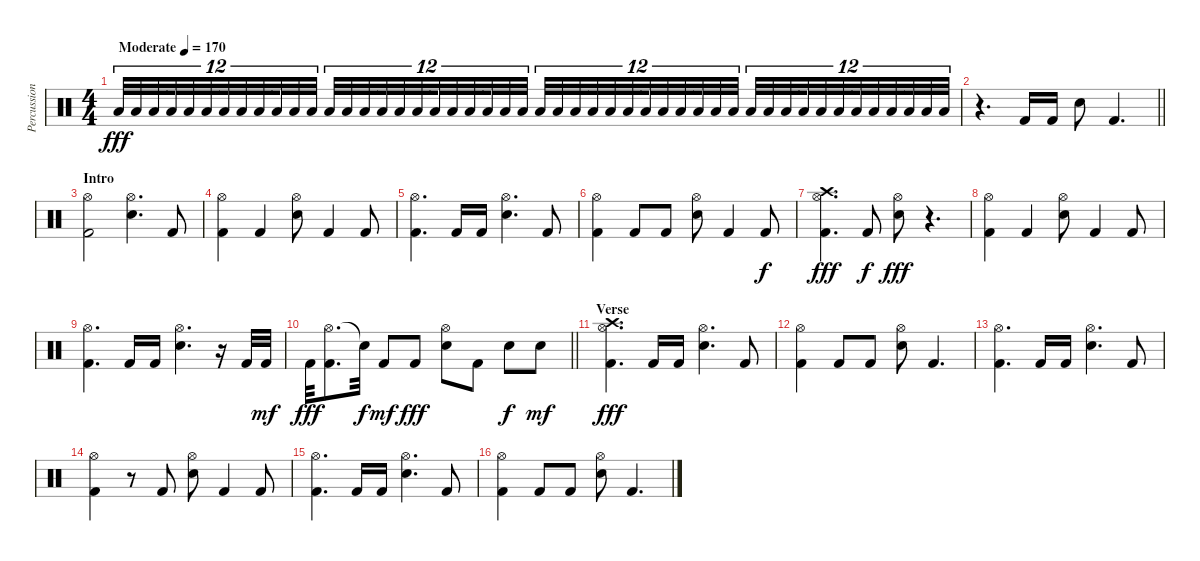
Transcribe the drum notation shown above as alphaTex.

\track ("Percussion" "Percussion") {instrument percussion}
\staff {score}
\articulation defaults
\ts (4 4)
\tempo (170 "Moderate")
\clef neutral
\ks c "Low Floor Tom (hit)".32{tu (12 8) dy fff volume 0} "Low Floor Tom (hit)".32{tu (12 8) volume 16} "Low Floor Tom (hit)".32{tu (12 8) beam splitsecondary} "Low Floor Tom (hit)".32{tu (12 8)} "Low Floor Tom (hit)".32{tu (12 8)} "Low Floor Tom (hit)".32{tu (12 8) beam splitsecondary} "Low Floor Tom (hit)".32{tu (12 8)} "Low Floor Tom (hit)".32{tu (12 8)} "Low Floor Tom (hit)".32{tu (12 8) beam splitsecondary} "Low Floor Tom (hit)".32{tu (12 8)} "Low Floor Tom (hit)".32{tu (12 8)} "Low Floor Tom (hit)".32{tu (12 8)} "Low Floor Tom (hit)".32{tu (12 8)} "Low Floor Tom (hit)".32{tu (12 8)} "Low Floor Tom (hit)".32{tu (12 8) beam splitsecondary} "Low Floor Tom (hit)".32{tu (12 8)} "Low Floor Tom (hit)".32{tu (12 8)} "Low Floor Tom (hit)".32{tu (12 8) beam splitsecondary} "Low Floor Tom (hit)".32{tu (12 8)} "Low Floor Tom (hit)".32{tu (12 8)} "Low Floor Tom (hit)".32{tu (12 8) beam splitsecondary} "Low Floor Tom (hit)".32{tu (12 8)} "Low Floor Tom (hit)".32{tu (12 8)} "Low Floor Tom (hit)".32{tu (12 8)} "Low Floor Tom (hit)".32{tu (12 8)} "Low Floor Tom (hit)".32{tu (12 8)} "Low Floor Tom (hit)".32{tu (12 8) beam splitsecondary} "Low Floor Tom (hit)".32{tu (12 8)} "Low Floor Tom (hit)".32{tu (12 8)} "Low Floor Tom (hit)".32{tu (12 8) beam splitsecondary} "Low Floor Tom (hit)".32{tu (12 8)} "Low Floor Tom (hit)".32{tu (12 8)} "Low Floor Tom (hit)".32{tu (12 8) beam splitsecondary} "Low Floor Tom (hit)".32{tu (12 8)} "Low Floor Tom (hit)".32{tu (12 8)} "Low Floor Tom (hit)".32{tu (12 8)} "Low Floor Tom (hit)".32{tu (12 8)} "Low Floor Tom (hit)".32{tu (12 8)} "Low Floor Tom (hit)".32{tu (12 8) beam splitsecondary} "Low Floor Tom (hit)".32{tu (12 8)} "Low Floor Tom (hit)".32{tu (12 8)} "Low Floor Tom (hit)".32{tu (12 8) beam splitsecondary} "Low Floor Tom (hit)".32{tu (12 8)} "Low Floor Tom (hit)".32{tu (12 8)} "Low Floor Tom (hit)".32{tu (12 8) beam splitsecondary} "Low Floor Tom (hit)".32{tu (12 8)} "Low Floor Tom (hit)".32{tu (12 8)} "Low Floor Tom (hit)".32{tu (12 8)}
|
\barLineRight lightlight
r.4{d} "Kick (hit) 2".16 "Kick (hit) 2".16 "Snare (hit) 2".8 "Kick (hit) 2".4{d} |
\section ("" "Intro")
("Hi-Hat (open)" "Kick (hit) 2").2 ("Hi-Hat (open)" "Snare (hit) 2").4{d} "Kick (hit) 2".8 |
("Hi-Hat (open)" "Kick (hit) 2").4 "Kick (hit) 2".4 ("Hi-Hat (open)" "Snare (hit) 2").8 "Kick (hit) 2".4 "Kick (hit) 2".8 |
("Hi-Hat (open)" "Kick (hit) 2").4{d} "Kick (hit) 2".16 "Kick (hit) 2".16 ("Hi-Hat (open)" "Snare (hit) 2").4{d} "Kick (hit) 2".8 |
("Hi-Hat (open)" "Kick (hit) 2").4 "Kick (hit) 2".8 "Kick (hit) 2".8 ("Hi-Hat (open)" "Snare (hit) 2").8 "Kick (hit) 2".4 "Kick (hit) 2".8{dy f} |
("Hi-Hat (open)" "Crash high (hit)" "Kick (hit) 2").4{d dy fff} "Kick (hit) 2".8{dy f} ("Hi-Hat (open)" "Snare (hit) 2").8{dy fff} r.4{d} |
("Hi-Hat (open)" "Kick (hit) 2").4 "Kick (hit) 2".4 ("Hi-Hat (open)" "Snare (hit) 2").8 "Kick (hit) 2".4 "Kick (hit) 2".8 |
("Hi-Hat (open)" "Kick (hit) 2").4{d} "Kick (hit) 2".16 "Kick (hit) 2".16 ("Hi-Hat (open)" "Snare (hit) 2").4{d} r.16 "Kick (hit) 2".32 "Kick (hit) 2".32{dy mf} |
\barLineRight lightlight "Kick (hit) 2".32{dy fff}
("Hi-Hat (open)" "Kick (hit) 2").8{d} "Snare (hit)"{t}.32{dy f} "Kick (hit) 2".8{dy mf} "Kick (hit) 2".8{dy fff} ("Hi-Hat (open)" "Snare (hit) 2").8 "Kick (hit) 2".8 "Snare (hit) 2".8{dy f} "Snare (hit) 2".8{dy mf} |
\section ("" "Verse")
("Hi-Hat (open)" "Crash high (hit)" "Kick (hit) 2").4{d dy fff} "Kick (hit) 2".16 "Kick (hit) 2".16 ("Hi-Hat (open)" "Snare (hit) 2").4{d} "Kick (hit) 2".8 |
("Hi-Hat (open)" "Kick (hit) 2").4 "Kick (hit) 2".8 "Kick (hit) 2".8 ("Hi-Hat (open)" "Snare (hit) 2").8 "Kick (hit) 2".4{d} |
("Hi-Hat (open)" "Kick (hit) 2").4{d} "Kick (hit) 2".16 "Kick (hit) 2".16 ("Hi-Hat (open)" "Snare (hit) 2").4{d} "Kick (hit) 2".8 |
("Hi-Hat (open)" "Kick (hit) 2").4 r.8 "Kick (hit) 2".8 ("Hi-Hat (open)" "Snare (hit) 2").8 "Kick (hit) 2".4 "Kick (hit) 2".8 |
("Hi-Hat (open)" "Kick (hit) 2").4{d} "Kick (hit) 2".16 "Kick (hit) 2".16 ("Hi-Hat (open)" "Snare (hit) 2").4{d} "Kick (hit) 2".8 |
("Hi-Hat (open)" "Kick (hit) 2").4 "Kick (hit) 2".8 "Kick (hit) 2".8 ("Hi-Hat (open)" "Snare (hit) 2").8 "Kick (hit) 2".4{d}
